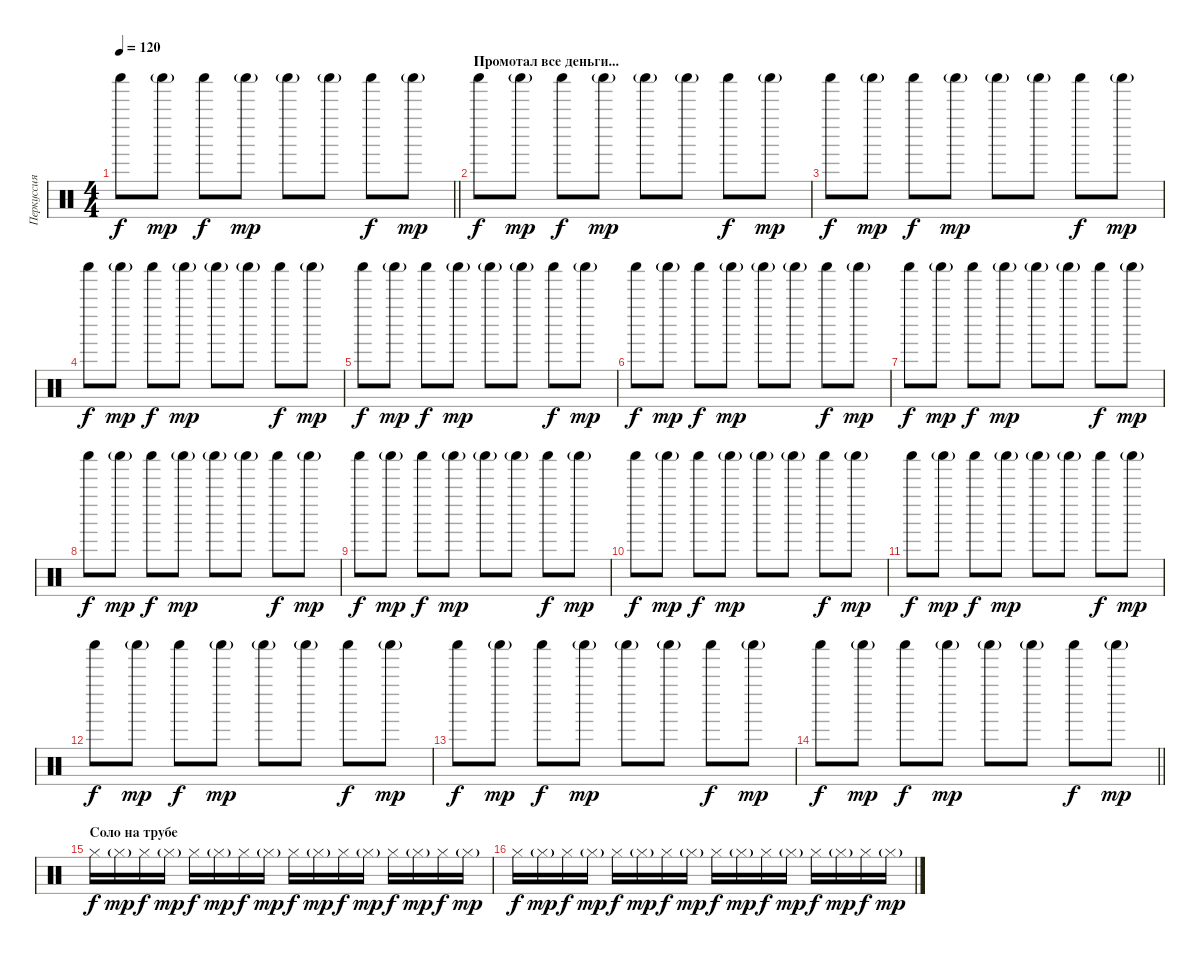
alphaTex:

\track ("Перкуссия" "Перкуссия") {instrument percussion}
\staff {score}
\articulation defaults
\ts (4 4)
\tempo 120
\clef neutral
\barLineRight lightlight
\ks c "Shaker (hit)".8{dy f} "Shaker (hit)"{g}.8{dy mp} "Shaker (hit)".8{dy f} "Shaker (hit)"{g}.8{dy mp} "Shaker (hit)"{g}.8 "Shaker (hit)"{g}.8 "Shaker (hit)".8{dy f} "Shaker (hit)"{g}.8{dy mp}
|
\section ("" "Промотал все деньги...")
"Shaker (hit)".8{dy f} "Shaker (hit)"{g}.8{dy mp} "Shaker (hit)".8{dy f} "Shaker (hit)"{g}.8{dy mp} "Shaker (hit)"{g}.8 "Shaker (hit)"{g}.8 "Shaker (hit)".8{dy f} "Shaker (hit)"{g}.8{dy mp} |
"Shaker (hit)".8{dy f} "Shaker (hit)"{g}.8{dy mp} "Shaker (hit)".8{dy f} "Shaker (hit)"{g}.8{dy mp} "Shaker (hit)"{g}.8 "Shaker (hit)"{g}.8 "Shaker (hit)".8{dy f} "Shaker (hit)"{g}.8{dy mp} |
"Shaker (hit)".8{dy f} "Shaker (hit)"{g}.8{dy mp} "Shaker (hit)".8{dy f} "Shaker (hit)"{g}.8{dy mp} "Shaker (hit)"{g}.8 "Shaker (hit)"{g}.8 "Shaker (hit)".8{dy f} "Shaker (hit)"{g}.8{dy mp} |
"Shaker (hit)".8{dy f} "Shaker (hit)"{g}.8{dy mp} "Shaker (hit)".8{dy f} "Shaker (hit)"{g}.8{dy mp} "Shaker (hit)"{g}.8 "Shaker (hit)"{g}.8 "Shaker (hit)".8{dy f} "Shaker (hit)"{g}.8{dy mp} |
"Shaker (hit)".8{dy f} "Shaker (hit)"{g}.8{dy mp} "Shaker (hit)".8{dy f} "Shaker (hit)"{g}.8{dy mp} "Shaker (hit)"{g}.8 "Shaker (hit)"{g}.8 "Shaker (hit)".8{dy f} "Shaker (hit)"{g}.8{dy mp} |
"Shaker (hit)".8{dy f} "Shaker (hit)"{g}.8{dy mp} "Shaker (hit)".8{dy f} "Shaker (hit)"{g}.8{dy mp} "Shaker (hit)"{g}.8 "Shaker (hit)"{g}.8 "Shaker (hit)".8{dy f} "Shaker (hit)"{g}.8{dy mp} |
"Shaker (hit)".8{dy f} "Shaker (hit)"{g}.8{dy mp} "Shaker (hit)".8{dy f} "Shaker (hit)"{g}.8{dy mp} "Shaker (hit)"{g}.8 "Shaker (hit)"{g}.8 "Shaker (hit)".8{dy f} "Shaker (hit)"{g}.8{dy mp} |
"Shaker (hit)".8{dy f} "Shaker (hit)"{g}.8{dy mp} "Shaker (hit)".8{dy f} "Shaker (hit)"{g}.8{dy mp} "Shaker (hit)"{g}.8 "Shaker (hit)"{g}.8 "Shaker (hit)".8{dy f} "Shaker (hit)"{g}.8{dy mp} |
"Shaker (hit)".8{dy f} "Shaker (hit)"{g}.8{dy mp} "Shaker (hit)".8{dy f} "Shaker (hit)"{g}.8{dy mp} "Shaker (hit)"{g}.8 "Shaker (hit)"{g}.8 "Shaker (hit)".8{dy f} "Shaker (hit)"{g}.8{dy mp} |
"Shaker (hit)".8{dy f} "Shaker (hit)"{g}.8{dy mp} "Shaker (hit)".8{dy f} "Shaker (hit)"{g}.8{dy mp} "Shaker (hit)"{g}.8 "Shaker (hit)"{g}.8 "Shaker (hit)".8{dy f} "Shaker (hit)"{g}.8{dy mp} |
"Shaker (hit)".8{dy f} "Shaker (hit)"{g}.8{dy mp} "Shaker (hit)".8{dy f} "Shaker (hit)"{g}.8{dy mp} "Shaker (hit)"{g}.8 "Shaker (hit)"{g}.8 "Shaker (hit)".8{dy f} "Shaker (hit)"{g}.8{dy mp} |
"Shaker (hit)".8{dy f} "Shaker (hit)"{g}.8{dy mp} "Shaker (hit)".8{dy f} "Shaker (hit)"{g}.8{dy mp} "Shaker (hit)"{g}.8 "Shaker (hit)"{g}.8 "Shaker (hit)".8{dy f} "Shaker (hit)"{g}.8{dy mp} |
\barLineRight lightlight "Shaker (hit)".8{dy f} "Shaker (hit)"{g}.8{dy mp} "Shaker (hit)".8{dy f} "Shaker (hit)"{g}.8{dy mp} "Shaker (hit)"{g}.8 "Shaker (hit)"{g}.8 "Shaker (hit)".8{dy f} "Shaker (hit)"{g}.8{dy mp}
|
\section ("" "Соло на трубе")
"Hi-Hat (closed)".16{dy f volume 2 balance 8} "Hi-Hat (closed)"{g}.16{dy mp} "Hi-Hat (closed)".16{dy f} "Hi-Hat (closed)"{g}.16{dy mp} "Hi-Hat (closed)".16{dy f} "Hi-Hat (closed)"{g}.16{dy mp} "Hi-Hat (closed)".16{dy f} "Hi-Hat (closed)"{g}.16{dy mp} "Hi-Hat (closed)".16{dy f} "Hi-Hat (closed)"{g}.16{dy mp} "Hi-Hat (closed)".16{dy f} "Hi-Hat (closed)"{g}.16{dy mp} "Hi-Hat (closed)".16{dy f} "Hi-Hat (closed)"{g}.16{dy mp} "Hi-Hat (closed)".16{dy f} "Hi-Hat (closed)"{g}.16{dy mp} |
"Hi-Hat (closed)".16{dy f} "Hi-Hat (closed)"{g}.16{dy mp} "Hi-Hat (closed)".16{dy f} "Hi-Hat (closed)"{g}.16{dy mp} "Hi-Hat (closed)".16{dy f} "Hi-Hat (closed)"{g}.16{dy mp} "Hi-Hat (closed)".16{dy f} "Hi-Hat (closed)"{g}.16{dy mp} "Hi-Hat (closed)".16{dy f} "Hi-Hat (closed)"{g}.16{dy mp} "Hi-Hat (closed)".16{dy f} "Hi-Hat (closed)"{g}.16{dy mp} "Hi-Hat (closed)".16{dy f} "Hi-Hat (closed)"{g}.16{dy mp} "Hi-Hat (closed)".16{dy f} "Hi-Hat (closed)"{g}.16{dy mp}
